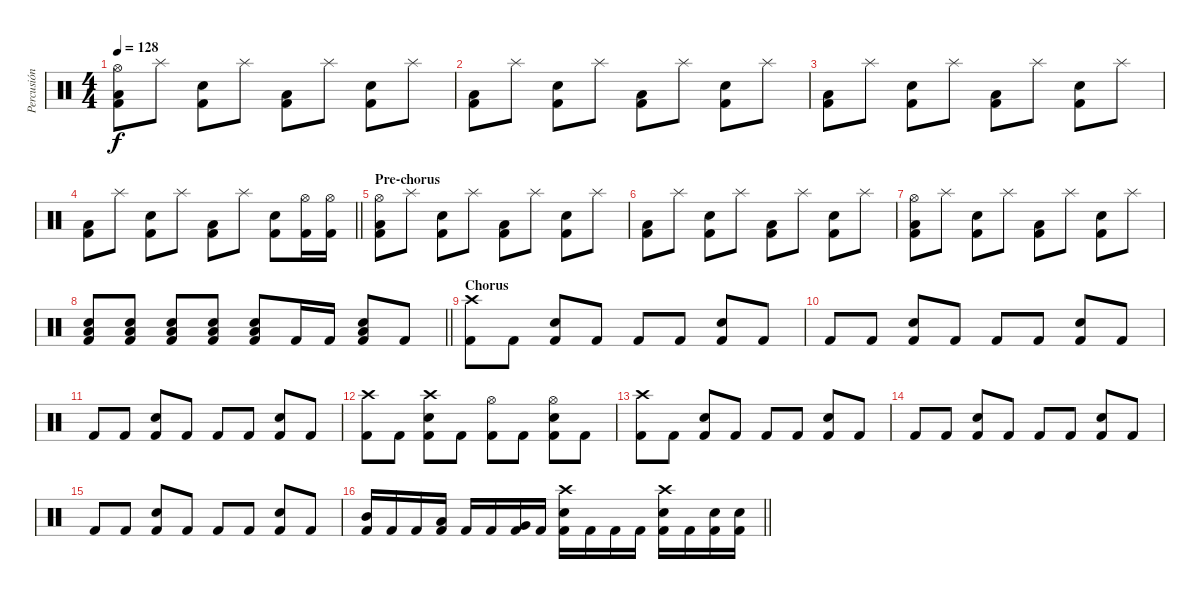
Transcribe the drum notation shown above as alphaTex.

\track ("Percusión" "Percusión") {instrument percussion}
\staff {score}
\articulation defaults
\ts (4 4)
\tempo 128
\clef neutral
\ks c
("Hi-Hat (open)" "Low Floor Tom (hit)" "Kick (hit) 2").8{dy f} "Splash (hit)".8 ("Snare (hit) 2" "Kick (hit) 2").8 "Splash (hit)".8 ("Low Floor Tom (hit)" "Kick (hit) 2").8 "Splash (hit)".8 ("Snare (hit) 2" "Kick (hit) 2").8 "Splash (hit)".8 |
("Low Floor Tom (hit)" "Kick (hit) 2").8 "Splash (hit)".8 ("Snare (hit) 2" "Kick (hit) 2").8 "Splash (hit)".8 ("Low Floor Tom (hit)" "Kick (hit) 2").8 "Splash (hit)".8 ("Snare (hit) 2" "Kick (hit) 2").8 "Splash (hit)".8 |
("Low Floor Tom (hit)" "Kick (hit) 2").8 "Splash (hit)".8 ("Snare (hit) 2" "Kick (hit) 2").8 "Splash (hit)".8 ("Low Floor Tom (hit)" "Kick (hit) 2").8 "Splash (hit)".8 ("Snare (hit) 2" "Kick (hit) 2").8 "Splash (hit)".8 |
\barLineRight lightlight
("Low Floor Tom (hit)" "Kick (hit) 2").8 "Splash (hit)".8 ("Snare (hit) 2" "Kick (hit) 2").8 "Splash (hit)".8 ("Low Floor Tom (hit)" "Kick (hit) 2").8 "Splash (hit)".8 ("Snare (hit) 2" "Kick (hit) 2").8 ("Hi-Hat (open)" "Kick (hit) 2").16 ("Hi-Hat (open)" "Kick (hit) 2").16 |
\section ("" "Pre-chorus")
("Hi-Hat (open)" "Low Floor Tom (hit)" "Kick (hit) 2").8 "Splash (hit)".8 ("Snare (hit) 2" "Kick (hit) 2").8 "Splash (hit)".8 ("Low Floor Tom (hit)" "Kick (hit) 2").8 "Splash (hit)".8 ("Snare (hit) 2" "Kick (hit) 2").8 "Splash (hit)".8 |
("Low Floor Tom (hit)" "Kick (hit) 2").8 "Splash (hit)".8 ("Snare (hit) 2" "Kick (hit) 2").8 "Splash (hit)".8 ("Low Floor Tom (hit)" "Kick (hit) 2").8 "Splash (hit)".8 ("Snare (hit) 2" "Kick (hit) 2").8 "Splash (hit)".8 |
("Hi-Hat (open)" "Low Floor Tom (hit)" "Kick (hit) 2").8 "Splash (hit)".8 ("Snare (hit) 2" "Kick (hit) 2").8 "Splash (hit)".8 ("Low Floor Tom (hit)" "Kick (hit) 2").8 "Splash (hit)".8 ("Snare (hit) 2" "Kick (hit) 2").8 "Splash (hit)".8 |
\barLineRight lightlight
("Low Tom (hit)" "Snare (hit) 2" "Kick (hit) 2").8 ("Low Tom (hit)" "Snare (hit) 2" "Kick (hit) 2").8 ("Low Tom (hit)" "Snare (hit) 2" "Kick (hit) 2").8 ("Low Tom (hit)" "Snare (hit) 2" "Kick (hit) 2").8 ("Low Tom (hit)" "Snare (hit) 2" "Kick (hit) 2").8 "Kick (hit) 2".16 "Kick (hit) 2".16 ("Low Tom (hit)" "Snare (hit) 2" "Kick (hit) 2").8 "Kick (hit) 2".8 |
\section ("" "Chorus")
("Crash high (hit)" "Kick (hit) 2").8 "Kick (hit) 2".8 ("Snare (hit) 2" "Kick (hit) 2").8 "Kick (hit) 2".8 "Kick (hit) 2".8 "Kick (hit) 2".8 ("Snare (hit) 2" "Kick (hit) 2").8 "Kick (hit) 2".8 |
"Kick (hit) 2".8 "Kick (hit) 2".8 ("Snare (hit) 2" "Kick (hit) 2").8 "Kick (hit) 2".8 "Kick (hit) 2".8 "Kick (hit) 2".8 ("Snare (hit) 2" "Kick (hit) 2").8 "Kick (hit) 2".8 |
"Kick (hit) 2".8 "Kick (hit) 2".8 ("Snare (hit) 2" "Kick (hit) 2").8 "Kick (hit) 2".8 "Kick (hit) 2".8 "Kick (hit) 2".8 ("Snare (hit) 2" "Kick (hit) 2").8 "Kick (hit) 2".8 |
("Crash high (hit)" "Kick (hit) 2").8 "Kick (hit) 2".8 ("Crash high (hit)" "Snare (hit) 2" "Kick (hit) 2").8 "Kick (hit) 2".8 ("Hi-Hat (open)" "Kick (hit) 2").8 "Kick (hit) 2".8 ("Hi-Hat (open)" "Snare (hit) 2" "Kick (hit) 2").8 "Kick (hit) 2".8 |
("Crash high (hit)" "Kick (hit) 2").8 "Kick (hit) 2".8 ("Snare (hit) 2" "Kick (hit) 2").8 "Kick (hit) 2".8 "Kick (hit) 2".8 "Kick (hit) 2".8 ("Snare (hit) 2" "Kick (hit) 2").8 "Kick (hit) 2".8 |
"Kick (hit) 2".8 "Kick (hit) 2".8 ("Snare (hit) 2" "Kick (hit) 2").8 "Kick (hit) 2".8 "Kick (hit) 2".8 "Kick (hit) 2".8 ("Snare (hit) 2" "Kick (hit) 2").8 "Kick (hit) 2".8 |
"Kick (hit) 2".8 "Kick (hit) 2".8 ("Snare (hit) 2" "Kick (hit) 2").8 "Kick (hit) 2".8 "Kick (hit) 2".8 "Kick (hit) 2".8 ("Snare (hit) 2" "Kick (hit) 2").8 "Kick (hit) 2".8 |
\barLineRight lightlight
("Mid Tom (hit)" "Kick (hit) 2").16 "Kick (hit) 2".16 "Kick (hit) 2".16 ("Low Tom (hit)" "Kick (hit) 2").16 "Kick (hit) 2".16 "Kick (hit) 2".16 ("Very Low Tom (hit)" "Kick (hit) 2").16 "Kick (hit) 2".16 ("Crash high (hit)" "Snare (hit) 2" "Kick (hit) 2").16 "Kick (hit) 2".16 "Kick (hit) 2".16 "Kick (hit) 2".16 ("Crash high (hit)" "Snare (hit) 2" "Kick (hit) 2").16 "Kick (hit) 2".16 ("Snare (hit) 2" "Kick (hit) 2").16 ("Snare (hit) 2" "Kick (hit) 2").16
